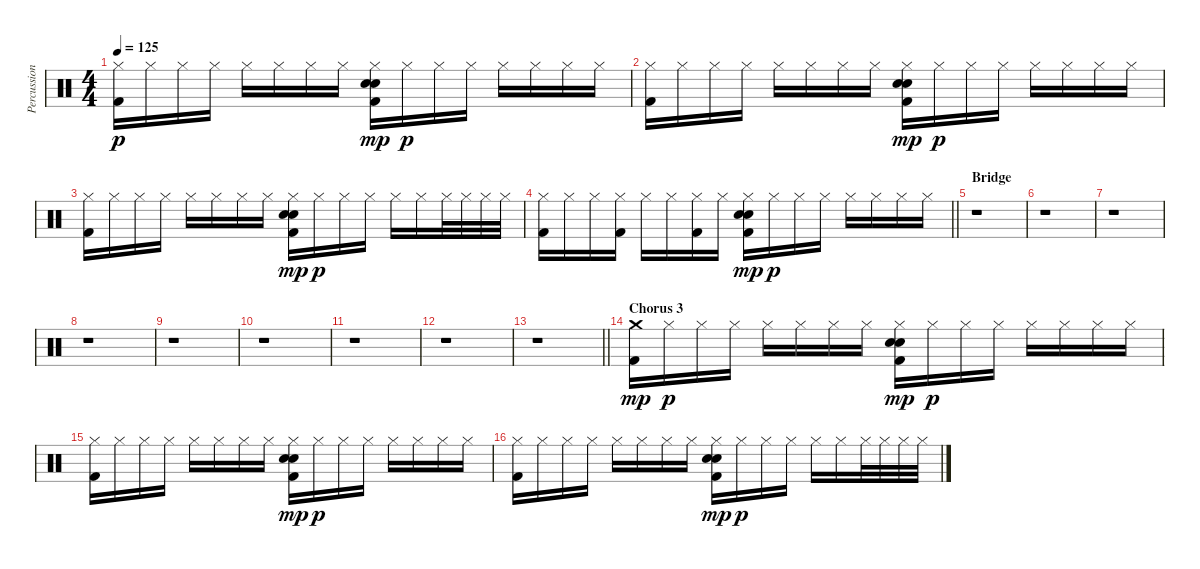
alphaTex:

\track ("Percussion" "Percussion") {instrument percussion}
\staff {score}
\articulation defaults
\ts (4 4)
\tempo 125
\clef neutral
\ks c
("Hi-Hat (closed)" "Kick (hit) 2").16{dy p} "Hi-Hat (closed)".16 "Hi-Hat (closed)".16 "Hi-Hat (closed)".16 "Hi-Hat (closed)".16 "Hi-Hat (closed)".16 "Hi-Hat (closed)".16 "Hi-Hat (closed)".16 ("Hi-Hat (closed)" "Hand Clap (hit)" "Electric Snare (hit)" "Kick (hit) 2").16{dy mp} "Hi-Hat (closed)".16{dy p} "Hi-Hat (closed)".16 "Hi-Hat (closed)".16 "Hi-Hat (closed)".16 "Hi-Hat (closed)".16 "Hi-Hat (closed)".16 "Hi-Hat (closed)".16 |
("Hi-Hat (closed)" "Kick (hit) 2").16 "Hi-Hat (closed)".16 "Hi-Hat (closed)".16 "Hi-Hat (closed)".16 "Hi-Hat (closed)".16 "Hi-Hat (closed)".16 "Hi-Hat (closed)".16 "Hi-Hat (closed)".16 ("Hi-Hat (closed)" "Hand Clap (hit)" "Electric Snare (hit)" "Kick (hit) 2").16{dy mp} "Hi-Hat (closed)".16{dy p} "Hi-Hat (closed)".16 "Hi-Hat (closed)".16 "Hi-Hat (closed)".16 "Hi-Hat (closed)".16 "Hi-Hat (closed)".16 "Hi-Hat (closed)".16 |
("Hi-Hat (closed)" "Kick (hit) 2").16 "Hi-Hat (closed)".16 "Hi-Hat (closed)".16 "Hi-Hat (closed)".16 "Hi-Hat (closed)".16 "Hi-Hat (closed)".16 "Hi-Hat (closed)".16 "Hi-Hat (closed)".16 ("Hi-Hat (closed)" "Hand Clap (hit)" "Electric Snare (hit)" "Kick (hit) 2").16{dy mp} "Hi-Hat (closed)".16{dy p} "Hi-Hat (closed)".16 "Hi-Hat (closed)".16 "Hi-Hat (closed)".16 "Hi-Hat (closed)".16 "Hi-Hat (closed)".32 "Hi-Hat (closed)".32 "Hi-Hat (closed)".32 "Hi-Hat (closed)".32 |
\barLineRight lightlight
("Hi-Hat (closed)" "Kick (hit) 2").16 "Hi-Hat (closed)".16 "Hi-Hat (closed)".16 ("Hi-Hat (closed)" "Kick (hit) 2").16 "Hi-Hat (closed)".16 "Hi-Hat (closed)".16 ("Hi-Hat (closed)" "Kick (hit) 2").16 "Hi-Hat (closed)".16 ("Hi-Hat (closed)" "Hand Clap (hit)" "Electric Snare (hit)" "Kick (hit) 2").16{dy mp} "Hi-Hat (closed)".16{dy p} "Hi-Hat (closed)".16 "Hi-Hat (closed)".16 "Hi-Hat (closed)".16 "Hi-Hat (closed)".16 "Hi-Hat (closed)".16 "Hi-Hat (closed)".16 |
\section ("" "Bridge")
r.1 |
r.1 |
r.1 |
r.1 |
r.1 |
r.1 |
r.1 |
r.1 |
\barLineRight lightlight
r.1 |
\section ("" "Chorus 3")
("Crash medium (hit)" "Kick (hit) 2").16{dy mp} "Hi-Hat (closed)".16{dy p} "Hi-Hat (closed)".16 "Hi-Hat (closed)".16 "Hi-Hat (closed)".16 "Hi-Hat (closed)".16 "Hi-Hat (closed)".16 "Hi-Hat (closed)".16 ("Hi-Hat (closed)" "Hand Clap (hit)" "Electric Snare (hit)" "Kick (hit) 2").16{dy mp} "Hi-Hat (closed)".16{dy p} "Hi-Hat (closed)".16 "Hi-Hat (closed)".16 "Hi-Hat (closed)".16 "Hi-Hat (closed)".16 "Hi-Hat (closed)".16 "Hi-Hat (closed)".16 |
("Hi-Hat (closed)" "Kick (hit) 2").16 "Hi-Hat (closed)".16 "Hi-Hat (closed)".16 "Hi-Hat (closed)".16 "Hi-Hat (closed)".16 "Hi-Hat (closed)".16 "Hi-Hat (closed)".16 "Hi-Hat (closed)".16 ("Hi-Hat (closed)" "Hand Clap (hit)" "Electric Snare (hit)" "Kick (hit) 2").16{dy mp} "Hi-Hat (closed)".16{dy p} "Hi-Hat (closed)".16 "Hi-Hat (closed)".16 "Hi-Hat (closed)".16 "Hi-Hat (closed)".16 "Hi-Hat (closed)".16 "Hi-Hat (closed)".16 |
("Hi-Hat (closed)" "Kick (hit) 2").16 "Hi-Hat (closed)".16 "Hi-Hat (closed)".16 "Hi-Hat (closed)".16 "Hi-Hat (closed)".16 "Hi-Hat (closed)".16 "Hi-Hat (closed)".16 "Hi-Hat (closed)".16 ("Hi-Hat (closed)" "Hand Clap (hit)" "Electric Snare (hit)" "Kick (hit) 2").16{dy mp} "Hi-Hat (closed)".16{dy p} "Hi-Hat (closed)".16 "Hi-Hat (closed)".16 "Hi-Hat (closed)".16 "Hi-Hat (closed)".16 "Hi-Hat (closed)".32 "Hi-Hat (closed)".32 "Hi-Hat (closed)".32 "Hi-Hat (closed)".32
